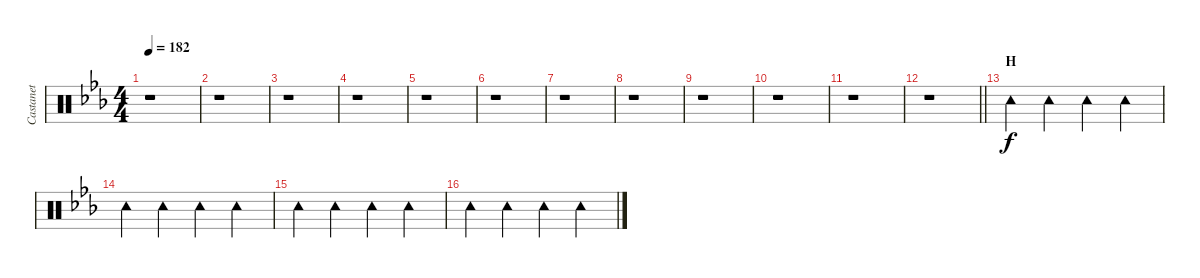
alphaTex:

\track ("Castanet" "Castanet") {instrument percussion}
\staff {score}
\articulation defaults
\ts (4 4)
\tempo 182
\clef neutral
\ks eb
r.1{dy f} |
r.1 |
r.1 |
r.1 |
r.1 |
r.1 |
r.1 |
r.1 |
r.1 |
r.1 |
r.1 |
\barLineRight lightlight
r.1 |
\section ("" "H")
"Tambourine (hit)".4 "Tambourine (hit)".4 "Tambourine (hit)".4 "Tambourine (hit)".4 |
"Tambourine (hit)".4 "Tambourine (hit)".4 "Tambourine (hit)".4 "Tambourine (hit)".4 |
"Tambourine (hit)".4 "Tambourine (hit)".4 "Tambourine (hit)".4 "Tambourine (hit)".4 |
"Tambourine (hit)".4 "Tambourine (hit)".4 "Tambourine (hit)".4 "Tambourine (hit)".4
